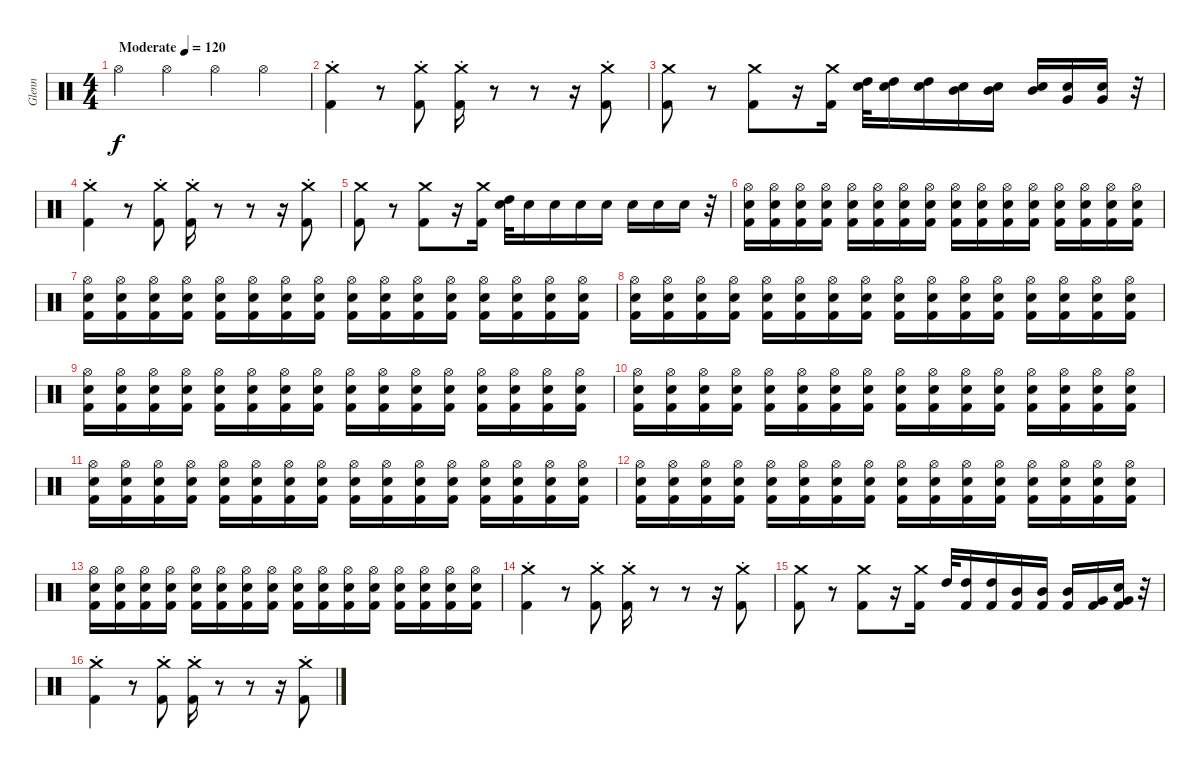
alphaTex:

\track ("Glenn" "Glenn") {instrument percussion}
\staff {score}
\articulation defaults
\ts (4 4)
\tempo (120 "Moderate")
\clef neutral
\ks c "Hi-Hat (open)".4{dy f} "Hi-Hat (open)".4 "Hi-Hat (open)".4 "Hi-Hat (open)".4
|
("Crash medium (hit)"{st} "Kick (hit) 2"{st}).4 r.8 ("Crash medium (hit)"{st} "Kick (hit) 2"{st}).8 ("Crash medium (hit)"{st} "Kick (hit) 2"{st}).16 r.8 r.8 r.16 ("Crash medium (hit)"{st} "Kick (hit) 2"{st}).8 |
("Crash medium (hit)" "Kick (hit) 2").8 r.8 ("Crash medium (hit)" "Kick (hit) 2").8 r.16 ("Crash medium (hit)" "Kick (hit) 2").16 ("High Tom (hit)" "Electric Snare (hit)").32 ("High Tom (hit)" "Electric Snare (hit)").16 ("High Tom (hit)" "Electric Snare (hit)").16 ("Mid Tom (hit)" "Electric Snare (hit)").16 ("Mid Tom (hit)" "Electric Snare (hit)").16 ("Mid Tom (hit)" "Electric Snare (hit)").16 ("Very Low Tom (hit)" "Electric Snare (hit)").16 ("Very Low Tom (hit)" "Electric Snare (hit)").16 r.32 |
("Crash medium (hit)"{st} "Kick (hit) 2"{st}).4 r.8 ("Crash medium (hit)"{st} "Kick (hit) 2"{st}).8 ("Crash medium (hit)"{st} "Kick (hit) 2"{st}).16 r.8 r.8 r.16 ("Crash medium (hit)"{st} "Kick (hit) 2"{st}).8 |
("Crash medium (hit)" "Kick (hit) 2").8 r.8 ("Crash medium (hit)" "Kick (hit) 2").8 r.16 ("Crash medium (hit)" "Kick (hit) 2").16 ("High Tom (hit)" "Electric Snare (hit)").32 "Electric Snare (hit)".16 "Electric Snare (hit)".16 "Electric Snare (hit)".16 "Electric Snare (hit)".16 "Electric Snare (hit)".16 "Electric Snare (hit)".16 "Electric Snare (hit)".16 r.32 |
("Hi-Hat (open)" "Electric Snare (hit)" "Kick (hit) 2").16 ("Hi-Hat (open)" "Electric Snare (hit)" "Kick (hit) 2").16 ("Hi-Hat (open)" "Electric Snare (hit)" "Kick (hit) 2").16 ("Hi-Hat (open)" "Electric Snare (hit)" "Kick (hit) 2").16 ("Hi-Hat (open)" "Electric Snare (hit)" "Kick (hit) 2").16 ("Hi-Hat (open)" "Electric Snare (hit)" "Kick (hit) 2").16 ("Hi-Hat (open)" "Electric Snare (hit)" "Kick (hit) 2").16 ("Hi-Hat (open)" "Electric Snare (hit)" "Kick (hit) 2").16 ("Hi-Hat (open)" "Electric Snare (hit)" "Kick (hit) 2").16 ("Hi-Hat (open)" "Electric Snare (hit)" "Kick (hit) 2").16 ("Hi-Hat (open)" "Electric Snare (hit)" "Kick (hit) 2").16 ("Hi-Hat (open)" "Electric Snare (hit)" "Kick (hit) 2").16 ("Hi-Hat (open)" "Electric Snare (hit)" "Kick (hit) 2").16 ("Hi-Hat (open)" "Electric Snare (hit)" "Kick (hit) 2").16 ("Hi-Hat (open)" "Electric Snare (hit)" "Kick (hit) 2").16 ("Hi-Hat (open)" "Electric Snare (hit)" "Kick (hit) 2").16 |
("Hi-Hat (open)" "Electric Snare (hit)" "Kick (hit) 2").16 ("Hi-Hat (open)" "Electric Snare (hit)" "Kick (hit) 2").16 ("Hi-Hat (open)" "Electric Snare (hit)" "Kick (hit) 2").16 ("Hi-Hat (open)" "Electric Snare (hit)" "Kick (hit) 2").16 ("Hi-Hat (open)" "Electric Snare (hit)" "Kick (hit) 2").16 ("Hi-Hat (open)" "Electric Snare (hit)" "Kick (hit) 2").16 ("Hi-Hat (open)" "Electric Snare (hit)" "Kick (hit) 2").16 ("Hi-Hat (open)" "Electric Snare (hit)" "Kick (hit) 2").16 ("Hi-Hat (open)" "Electric Snare (hit)" "Kick (hit) 2").16 ("Hi-Hat (open)" "Electric Snare (hit)" "Kick (hit) 2").16 ("Hi-Hat (open)" "Electric Snare (hit)" "Kick (hit) 2").16 ("Hi-Hat (open)" "Electric Snare (hit)" "Kick (hit) 2").16 ("Hi-Hat (open)" "Electric Snare (hit)" "Kick (hit) 2").16 ("Hi-Hat (open)" "Electric Snare (hit)" "Kick (hit) 2").16 ("Hi-Hat (open)" "Electric Snare (hit)" "Kick (hit) 2").16 ("Hi-Hat (open)" "Electric Snare (hit)" "Kick (hit) 2").16 |
("Hi-Hat (open)" "Electric Snare (hit)" "Kick (hit) 2").16 ("Hi-Hat (open)" "Electric Snare (hit)" "Kick (hit) 2").16 ("Hi-Hat (open)" "Electric Snare (hit)" "Kick (hit) 2").16 ("Hi-Hat (open)" "Electric Snare (hit)" "Kick (hit) 2").16 ("Hi-Hat (open)" "Electric Snare (hit)" "Kick (hit) 2").16 ("Hi-Hat (open)" "Electric Snare (hit)" "Kick (hit) 2").16 ("Hi-Hat (open)" "Electric Snare (hit)" "Kick (hit) 2").16 ("Hi-Hat (open)" "Electric Snare (hit)" "Kick (hit) 2").16 ("Hi-Hat (open)" "Electric Snare (hit)" "Kick (hit) 2").16 ("Hi-Hat (open)" "Electric Snare (hit)" "Kick (hit) 2").16 ("Hi-Hat (open)" "Electric Snare (hit)" "Kick (hit) 2").16 ("Hi-Hat (open)" "Electric Snare (hit)" "Kick (hit) 2").16 ("Hi-Hat (open)" "Electric Snare (hit)" "Kick (hit) 2").16 ("Hi-Hat (open)" "Electric Snare (hit)" "Kick (hit) 2").16 ("Hi-Hat (open)" "Electric Snare (hit)" "Kick (hit) 2").16 ("Hi-Hat (open)" "Electric Snare (hit)" "Kick (hit) 2").16 |
("Hi-Hat (open)" "Electric Snare (hit)" "Kick (hit) 2").16 ("Hi-Hat (open)" "Electric Snare (hit)" "Kick (hit) 2").16 ("Hi-Hat (open)" "Electric Snare (hit)" "Kick (hit) 2").16 ("Hi-Hat (open)" "Electric Snare (hit)" "Kick (hit) 2").16 ("Hi-Hat (open)" "Electric Snare (hit)" "Kick (hit) 2").16 ("Hi-Hat (open)" "Electric Snare (hit)" "Kick (hit) 2").16 ("Hi-Hat (open)" "Electric Snare (hit)" "Kick (hit) 2").16 ("Hi-Hat (open)" "Electric Snare (hit)" "Kick (hit) 2").16 ("Hi-Hat (open)" "Electric Snare (hit)" "Kick (hit) 2").16 ("Hi-Hat (open)" "Electric Snare (hit)" "Kick (hit) 2").16 ("Hi-Hat (open)" "Electric Snare (hit)" "Kick (hit) 2").16 ("Hi-Hat (open)" "Electric Snare (hit)" "Kick (hit) 2").16 ("Hi-Hat (open)" "Electric Snare (hit)" "Kick (hit) 2").16 ("Hi-Hat (open)" "Electric Snare (hit)" "Kick (hit) 2").16 ("Hi-Hat (open)" "Electric Snare (hit)" "Kick (hit) 2").16 ("Hi-Hat (open)" "Electric Snare (hit)" "Kick (hit) 2").16 |
("Hi-Hat (open)" "Electric Snare (hit)" "Kick (hit) 2").16 ("Hi-Hat (open)" "Electric Snare (hit)" "Kick (hit) 2").16 ("Hi-Hat (open)" "Electric Snare (hit)" "Kick (hit) 2").16 ("Hi-Hat (open)" "Electric Snare (hit)" "Kick (hit) 2").16 ("Hi-Hat (open)" "Electric Snare (hit)" "Kick (hit) 2").16 ("Hi-Hat (open)" "Electric Snare (hit)" "Kick (hit) 2").16 ("Hi-Hat (open)" "Electric Snare (hit)" "Kick (hit) 2").16 ("Hi-Hat (open)" "Electric Snare (hit)" "Kick (hit) 2").16 ("Hi-Hat (open)" "Electric Snare (hit)" "Kick (hit) 2").16 ("Hi-Hat (open)" "Electric Snare (hit)" "Kick (hit) 2").16 ("Hi-Hat (open)" "Electric Snare (hit)" "Kick (hit) 2").16 ("Hi-Hat (open)" "Electric Snare (hit)" "Kick (hit) 2").16 ("Hi-Hat (open)" "Electric Snare (hit)" "Kick (hit) 2").16 ("Hi-Hat (open)" "Electric Snare (hit)" "Kick (hit) 2").16 ("Hi-Hat (open)" "Electric Snare (hit)" "Kick (hit) 2").16 ("Hi-Hat (open)" "Electric Snare (hit)" "Kick (hit) 2").16 |
("Hi-Hat (open)" "Electric Snare (hit)" "Kick (hit) 2").16 ("Hi-Hat (open)" "Electric Snare (hit)" "Kick (hit) 2").16 ("Hi-Hat (open)" "Electric Snare (hit)" "Kick (hit) 2").16 ("Hi-Hat (open)" "Electric Snare (hit)" "Kick (hit) 2").16 ("Hi-Hat (open)" "Electric Snare (hit)" "Kick (hit) 2").16 ("Hi-Hat (open)" "Electric Snare (hit)" "Kick (hit) 2").16 ("Hi-Hat (open)" "Electric Snare (hit)" "Kick (hit) 2").16 ("Hi-Hat (open)" "Electric Snare (hit)" "Kick (hit) 2").16 ("Hi-Hat (open)" "Electric Snare (hit)" "Kick (hit) 2").16 ("Hi-Hat (open)" "Electric Snare (hit)" "Kick (hit) 2").16 ("Hi-Hat (open)" "Electric Snare (hit)" "Kick (hit) 2").16 ("Hi-Hat (open)" "Electric Snare (hit)" "Kick (hit) 2").16 ("Hi-Hat (open)" "Electric Snare (hit)" "Kick (hit) 2").16 ("Hi-Hat (open)" "Electric Snare (hit)" "Kick (hit) 2").16 ("Hi-Hat (open)" "Electric Snare (hit)" "Kick (hit) 2").16 ("Hi-Hat (open)" "Electric Snare (hit)" "Kick (hit) 2").16 |
("Hi-Hat (open)" "Electric Snare (hit)" "Kick (hit) 2").16 ("Hi-Hat (open)" "Electric Snare (hit)" "Kick (hit) 2").16 ("Hi-Hat (open)" "Electric Snare (hit)" "Kick (hit) 2").16 ("Hi-Hat (open)" "Electric Snare (hit)" "Kick (hit) 2").16 ("Hi-Hat (open)" "Electric Snare (hit)" "Kick (hit) 2").16 ("Hi-Hat (open)" "Electric Snare (hit)" "Kick (hit) 2").16 ("Hi-Hat (open)" "Electric Snare (hit)" "Kick (hit) 2").16 ("Hi-Hat (open)" "Electric Snare (hit)" "Kick (hit) 2").16 ("Hi-Hat (open)" "Electric Snare (hit)" "Kick (hit) 2").16 ("Hi-Hat (open)" "Electric Snare (hit)" "Kick (hit) 2").16 ("Hi-Hat (open)" "Electric Snare (hit)" "Kick (hit) 2").16 ("Hi-Hat (open)" "Electric Snare (hit)" "Kick (hit) 2").16 ("Hi-Hat (open)" "Electric Snare (hit)" "Kick (hit) 2").16 ("Hi-Hat (open)" "Electric Snare (hit)" "Kick (hit) 2").16 ("Hi-Hat (open)" "Electric Snare (hit)" "Kick (hit) 2").16 ("Hi-Hat (open)" "Electric Snare (hit)" "Kick (hit) 2").16 |
("Hi-Hat (open)" "Electric Snare (hit)" "Kick (hit) 2").16 ("Hi-Hat (open)" "Electric Snare (hit)" "Kick (hit) 2").16 ("Hi-Hat (open)" "Electric Snare (hit)" "Kick (hit) 2").16 ("Hi-Hat (open)" "Electric Snare (hit)" "Kick (hit) 2").16 ("Hi-Hat (open)" "Electric Snare (hit)" "Kick (hit) 2").16 ("Hi-Hat (open)" "Electric Snare (hit)" "Kick (hit) 2").16 ("Hi-Hat (open)" "Electric Snare (hit)" "Kick (hit) 2").16 ("Hi-Hat (open)" "Electric Snare (hit)" "Kick (hit) 2").16 ("Hi-Hat (open)" "Electric Snare (hit)" "Kick (hit) 2").16 ("Hi-Hat (open)" "Electric Snare (hit)" "Kick (hit) 2").16 ("Hi-Hat (open)" "Electric Snare (hit)" "Kick (hit) 2").16 ("Hi-Hat (open)" "Electric Snare (hit)" "Kick (hit) 2").16 ("Hi-Hat (open)" "Electric Snare (hit)" "Kick (hit) 2").16 ("Hi-Hat (open)" "Electric Snare (hit)" "Kick (hit) 2").16 ("Hi-Hat (open)" "Electric Snare (hit)" "Kick (hit) 2").16 ("Hi-Hat (open)" "Electric Snare (hit)" "Kick (hit) 2").16 |
("Crash medium (hit)"{st} "Kick (hit) 2"{st}).4 r.8 ("Crash medium (hit)"{st} "Kick (hit) 2"{st}).8 ("Crash medium (hit)"{st} "Kick (hit) 2"{st}).16 r.8 r.8 r.16 ("Crash medium (hit)"{st} "Kick (hit) 2"{st}).8 |
("Crash medium (hit)" "Kick (hit) 2").8 r.8 ("Crash medium (hit)" "Kick (hit) 2").8 r.16 ("Crash medium (hit)" "Kick (hit) 2").16 "High Tom (hit)".32 ("High Tom (hit)" "Kick (hit) 2").16 ("High Tom (hit)" "Kick (hit) 2").16 ("Mid Tom (hit)" "Kick (hit) 2").16 ("Mid Tom (hit)" "Kick (hit) 2").16 ("Mid Tom (hit)" "Kick (hit) 2").16 ("Very Low Tom (hit)" "Kick (hit) 2").16 ("Very Low Tom (hit)" "Electric Snare (hit)" "Kick (hit) 2").16 r.32 |
("Crash medium (hit)"{st} "Kick (hit) 2"{st}).4 r.8 ("Crash medium (hit)"{st} "Kick (hit) 2"{st}).8 ("Crash medium (hit)"{st} "Kick (hit) 2"{st}).16 r.8 r.8 r.16 ("Crash medium (hit)"{st} "Kick (hit) 2"{st}).8
